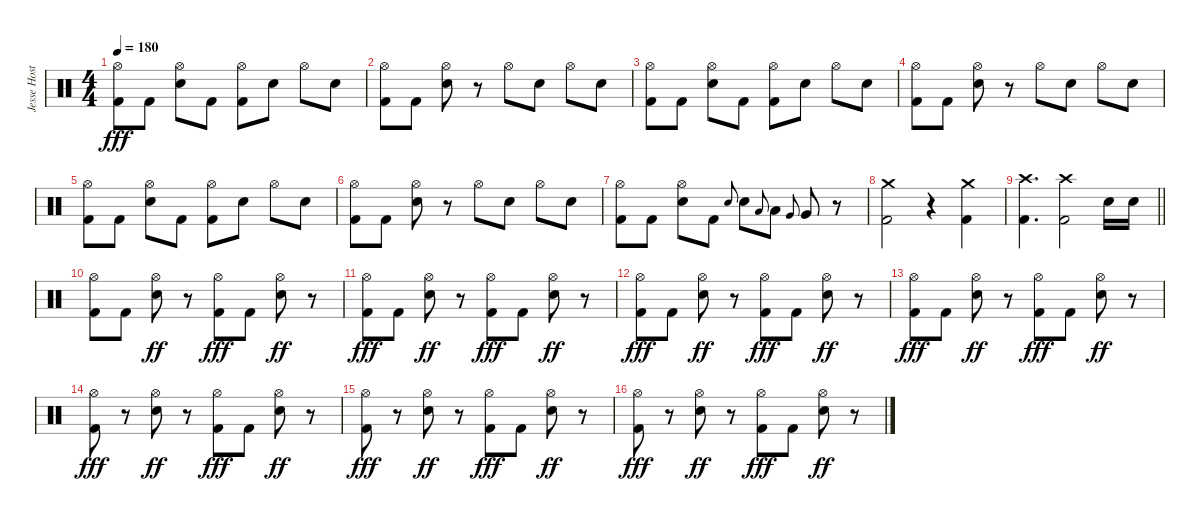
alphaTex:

\track ("Jesse Hostetler" "Jesse Host") {instrument percussion}
\staff {score}
\articulation defaults
\ts (4 4)
\tempo 180
\clef neutral
\ks c
("Hi-Hat (open)" "Kick (hit) 2").8{dy fff} "Kick (hit) 2".8 ("Hi-Hat (open)" "Electric Snare (hit)").8 "Kick (hit) 2".8 ("Hi-Hat (open)" "Kick (hit) 2").8 "Electric Snare (hit)".8 "Hi-Hat (open)".8 "Electric Snare (hit)".8 |
("Hi-Hat (open)" "Kick (hit) 2").8 "Kick (hit) 2".8 ("Hi-Hat (open)" "Electric Snare (hit)").8 r.8 "Hi-Hat (open)".8 "Electric Snare (hit)".8 "Hi-Hat (open)".8 "Electric Snare (hit)".8 |
("Hi-Hat (open)" "Kick (hit) 2").8 "Kick (hit) 2".8 ("Hi-Hat (open)" "Electric Snare (hit)").8 "Kick (hit) 2".8 ("Hi-Hat (open)" "Kick (hit) 2").8 "Electric Snare (hit)".8 "Hi-Hat (open)".8 "Electric Snare (hit)".8 |
("Hi-Hat (open)" "Kick (hit) 2").8 "Kick (hit) 2".8 ("Hi-Hat (open)" "Electric Snare (hit)").8 r.8 "Hi-Hat (open)".8 "Electric Snare (hit)".8 "Hi-Hat (open)".8 "Electric Snare (hit)".8 |
("Hi-Hat (open)" "Kick (hit) 2").8 "Kick (hit) 2".8 ("Hi-Hat (open)" "Electric Snare (hit)").8 "Kick (hit) 2".8 ("Hi-Hat (open)" "Kick (hit) 2").8 "Electric Snare (hit)".8 "Hi-Hat (open)".8 "Electric Snare (hit)".8 |
("Hi-Hat (open)" "Kick (hit) 2").8 "Kick (hit) 2".8 ("Hi-Hat (open)" "Electric Snare (hit)").8 r.8 "Hi-Hat (open)".8 "Electric Snare (hit)".8 "Hi-Hat (open)".8 "Electric Snare (hit)".8 |
("Hi-Hat (open)" "Kick (hit) 2").8 "Kick (hit) 2".8 ("Hi-Hat (open)" "Electric Snare (hit)").8 "Kick (hit) 2".8 "Electric Snare (hit)".8{gr onbeat} "Electric Snare (hit)".8 "Low Tom (hit)".8{gr onbeat} "Low Tom (hit)".8 "Very Low Tom (hit)".8{gr onbeat} "Very Low Tom (hit)".8 r.8 |
("Crash medium (hit)" "Kick (hit) 2").2 r.4 ("Crash medium (hit)" "Kick (hit) 2").4 |
\barLineRight lightlight
("Crash high (hit)" "Kick (hit) 2").4{d} ("Crash high (hit)" "Kick (hit) 2").2 "Electric Snare (hit)".16 "Electric Snare (hit)".16 |
("Hi-Hat (open)" "Kick (hit) 2").8 "Kick (hit) 2".8 ("Hi-Hat (open)" "Electric Snare (hit)").8{dy ff} r.8 ("Hi-Hat (open)" "Kick (hit) 2").8{dy fff} "Kick (hit) 2".8 ("Hi-Hat (open)" "Electric Snare (hit)").8{dy ff} r.8 |
("Hi-Hat (open)" "Kick (hit) 2").8{dy fff} "Kick (hit) 2".8 ("Hi-Hat (open)" "Electric Snare (hit)").8{dy ff} r.8 ("Hi-Hat (open)" "Kick (hit) 2").8{dy fff} "Kick (hit) 2".8 ("Hi-Hat (open)" "Electric Snare (hit)").8{dy ff} r.8 |
("Hi-Hat (open)" "Kick (hit) 2").8{dy fff} "Kick (hit) 2".8 ("Hi-Hat (open)" "Electric Snare (hit)").8{dy ff} r.8 ("Hi-Hat (open)" "Kick (hit) 2").8{dy fff} "Kick (hit) 2".8 ("Hi-Hat (open)" "Electric Snare (hit)").8{dy ff} r.8 |
("Hi-Hat (open)" "Kick (hit) 2").8{dy fff} "Kick (hit) 2".8 ("Hi-Hat (open)" "Electric Snare (hit)").8{dy ff} r.8 ("Hi-Hat (open)" "Kick (hit) 2").8{dy fff} "Kick (hit) 2".8 ("Hi-Hat (open)" "Electric Snare (hit)").8{dy ff} r.8 |
("Hi-Hat (open)" "Kick (hit) 2").8{dy fff} r.8 ("Hi-Hat (open)" "Electric Snare (hit)").8{dy ff} r.8 ("Hi-Hat (open)" "Kick (hit) 2").8{dy fff} "Kick (hit) 2".8 ("Hi-Hat (open)" "Electric Snare (hit)").8{dy ff} r.8 |
("Hi-Hat (open)" "Kick (hit) 2").8{dy fff} r.8 ("Hi-Hat (open)" "Electric Snare (hit)").8{dy ff} r.8 ("Hi-Hat (open)" "Kick (hit) 2").8{dy fff} "Kick (hit) 2".8 ("Hi-Hat (open)" "Electric Snare (hit)").8{dy ff} r.8 |
("Hi-Hat (open)" "Kick (hit) 2").8{dy fff} r.8 ("Hi-Hat (open)" "Electric Snare (hit)").8{dy ff} r.8 ("Hi-Hat (open)" "Kick (hit) 2").8{dy fff} "Kick (hit) 2".8 ("Hi-Hat (open)" "Electric Snare (hit)").8{dy ff} r.8
